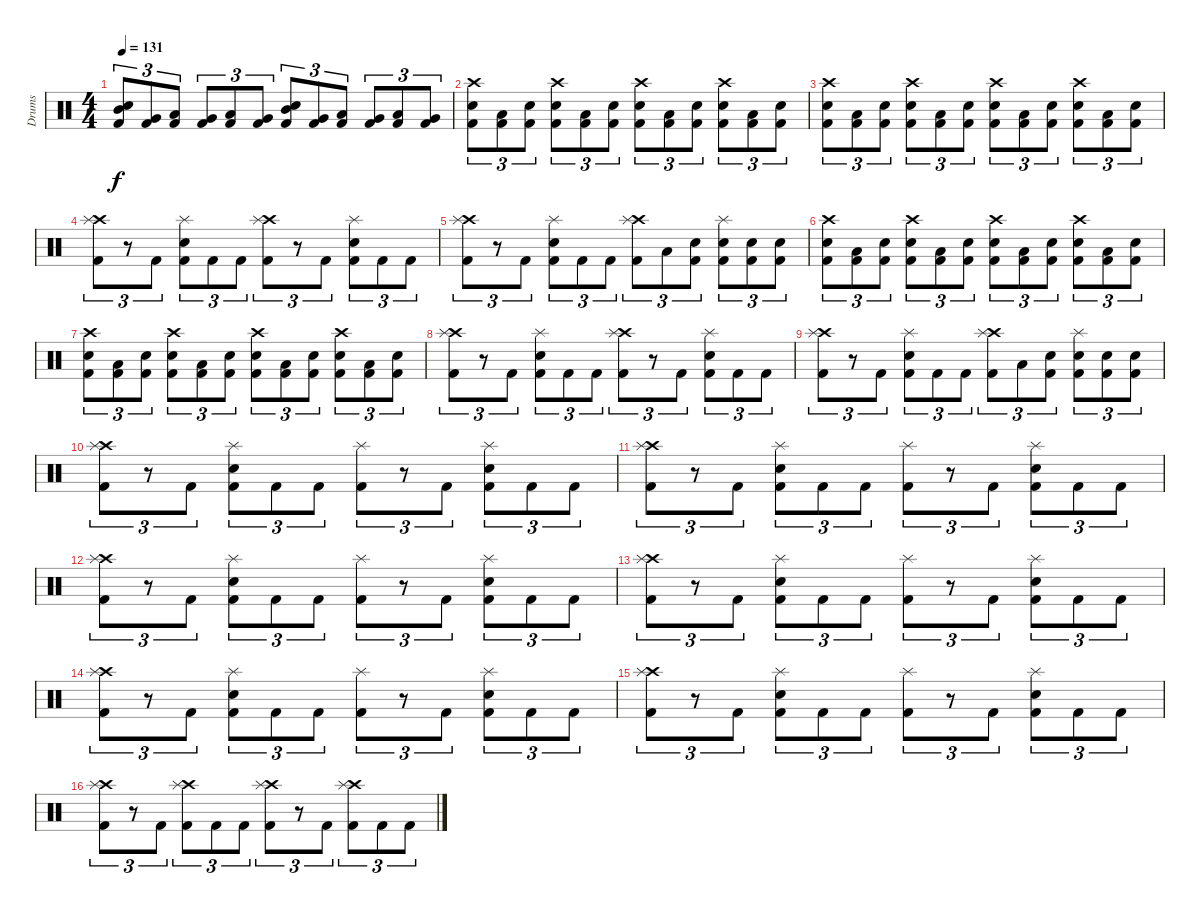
\track ("Drums" "Drums") {instrument percussion}
\staff {score}
\articulation defaults
\ts (4 4)
\tempo 131
\clef neutral
\ks c
("Kick (hit) 2" "Mid Tom (hit)" "Electric Snare (hit)").8{tu (3 2) dy f} ("Kick (hit) 2" "Very Low Tom (hit)").8{tu (3 2)} ("Kick (hit) 2" "Low Tom (hit)").8{tu (3 2)} ("Kick (hit) 2" "Very Low Tom (hit)").8{tu (3 2)} ("Kick (hit) 2" "Low Tom (hit)").8{tu (3 2)} ("Kick (hit) 2" "Very Low Tom (hit)").8{tu (3 2)} ("Kick (hit) 2" "Mid Tom (hit)" "Electric Snare (hit)").8{tu (3 2)} ("Kick (hit) 2" "Very Low Tom (hit)").8{tu (3 2)} ("Kick (hit) 2" "Low Tom (hit)").8{tu (3 2)} ("Kick (hit) 2" "Very Low Tom (hit)").8{tu (3 2)} ("Kick (hit) 2" "Low Tom (hit)").8{tu (3 2)} ("Kick (hit) 2" "Very Low Tom (hit)").8{tu (3 2)} |
("Kick (hit) 2" "Electric Snare (hit)" "Crash high (hit)").8{tu (3 2)} ("Kick (hit) 2" "Low Floor Tom (hit)").8{tu (3 2)} ("Kick (hit) 2" "Electric Snare (hit)").8{tu (3 2)} ("Kick (hit) 2" "Electric Snare (hit)" "Crash high (hit)").8{tu (3 2)} ("Kick (hit) 2" "Low Floor Tom (hit)").8{tu (3 2)} ("Kick (hit) 2" "Electric Snare (hit)").8{tu (3 2)} ("Kick (hit) 2" "Electric Snare (hit)" "Crash high (hit)").8{tu (3 2)} ("Kick (hit) 2" "Low Floor Tom (hit)").8{tu (3 2)} ("Kick (hit) 2" "Electric Snare (hit)").8{tu (3 2)} ("Kick (hit) 2" "Electric Snare (hit)" "Crash high (hit)").8{tu (3 2)} ("Kick (hit) 2" "Low Floor Tom (hit)").8{tu (3 2)} ("Kick (hit) 2" "Electric Snare (hit)").8{tu (3 2)} |
("Kick (hit) 2" "Electric Snare (hit)" "Crash high (hit)").8{tu (3 2)} ("Kick (hit) 2" "Low Floor Tom (hit)").8{tu (3 2)} ("Kick (hit) 2" "Electric Snare (hit)").8{tu (3 2)} ("Kick (hit) 2" "Electric Snare (hit)" "Crash high (hit)").8{tu (3 2)} ("Kick (hit) 2" "Low Floor Tom (hit)").8{tu (3 2)} ("Kick (hit) 2" "Electric Snare (hit)").8{tu (3 2)} ("Kick (hit) 2" "Electric Snare (hit)" "Crash high (hit)").8{tu (3 2)} ("Kick (hit) 2" "Low Floor Tom (hit)").8{tu (3 2)} ("Kick (hit) 2" "Electric Snare (hit)").8{tu (3 2)} ("Kick (hit) 2" "Electric Snare (hit)" "Crash high (hit)").8{tu (3 2)} ("Kick (hit) 2" "Low Floor Tom (hit)").8{tu (3 2)} ("Kick (hit) 2" "Electric Snare (hit)").8{tu (3 2)} |
("Kick (hit) 2" "Crash high (hit)" "Splash (hit)").8{tu (3 2)} r.8{tu (3 2)} "Kick (hit) 2".8{tu (3 2)} ("Kick (hit) 2" "Electric Snare (hit)" "Splash (hit)").8{tu (3 2)} "Kick (hit) 2".8{tu (3 2)} "Kick (hit) 2".8{tu (3 2)} ("Kick (hit) 2" "Crash high (hit)" "Splash (hit)").8{tu (3 2)} r.8{tu (3 2)} "Kick (hit) 2".8{tu (3 2)} ("Kick (hit) 2" "Electric Snare (hit)" "Splash (hit)").8{tu (3 2)} "Kick (hit) 2".8{tu (3 2)} "Kick (hit) 2".8{tu (3 2)} |
("Kick (hit) 2" "Crash high (hit)" "Splash (hit)").8{tu (3 2)} r.8{tu (3 2)} "Kick (hit) 2".8{tu (3 2)} ("Kick (hit) 2" "Electric Snare (hit)" "Splash (hit)").8{tu (3 2)} "Kick (hit) 2".8{tu (3 2)} "Kick (hit) 2".8{tu (3 2)} ("Kick (hit) 2" "Crash high (hit)" "Splash (hit)").8{tu (3 2)} "Low Floor Tom (hit)".8{tu (3 2)} ("Kick (hit) 2" "Electric Snare (hit)").8{tu (3 2)} ("Kick (hit) 2" "Electric Snare (hit)" "Splash (hit)").8{tu (3 2)} ("Kick (hit) 2" "Electric Snare (hit)").8{tu (3 2)} ("Kick (hit) 2" "Electric Snare (hit)").8{tu (3 2)} |
("Kick (hit) 2" "Electric Snare (hit)" "Crash high (hit)").8{tu (3 2)} ("Kick (hit) 2" "Low Floor Tom (hit)").8{tu (3 2)} ("Kick (hit) 2" "Electric Snare (hit)").8{tu (3 2)} ("Kick (hit) 2" "Electric Snare (hit)" "Crash high (hit)").8{tu (3 2)} ("Kick (hit) 2" "Low Floor Tom (hit)").8{tu (3 2)} ("Kick (hit) 2" "Electric Snare (hit)").8{tu (3 2)} ("Kick (hit) 2" "Electric Snare (hit)" "Crash high (hit)").8{tu (3 2)} ("Kick (hit) 2" "Low Floor Tom (hit)").8{tu (3 2)} ("Kick (hit) 2" "Electric Snare (hit)").8{tu (3 2)} ("Kick (hit) 2" "Electric Snare (hit)" "Crash high (hit)").8{tu (3 2)} ("Kick (hit) 2" "Low Floor Tom (hit)").8{tu (3 2)} ("Kick (hit) 2" "Electric Snare (hit)").8{tu (3 2)} |
("Kick (hit) 2" "Electric Snare (hit)" "Crash high (hit)").8{tu (3 2)} ("Kick (hit) 2" "Low Floor Tom (hit)").8{tu (3 2)} ("Kick (hit) 2" "Electric Snare (hit)").8{tu (3 2)} ("Kick (hit) 2" "Electric Snare (hit)" "Crash high (hit)").8{tu (3 2)} ("Kick (hit) 2" "Low Floor Tom (hit)").8{tu (3 2)} ("Kick (hit) 2" "Electric Snare (hit)").8{tu (3 2)} ("Kick (hit) 2" "Electric Snare (hit)" "Crash high (hit)").8{tu (3 2)} ("Kick (hit) 2" "Low Floor Tom (hit)").8{tu (3 2)} ("Kick (hit) 2" "Electric Snare (hit)").8{tu (3 2)} ("Kick (hit) 2" "Electric Snare (hit)" "Crash high (hit)").8{tu (3 2)} ("Kick (hit) 2" "Low Floor Tom (hit)").8{tu (3 2)} ("Kick (hit) 2" "Electric Snare (hit)").8{tu (3 2)} |
("Kick (hit) 2" "Crash high (hit)" "Splash (hit)").8{tu (3 2)} r.8{tu (3 2)} "Kick (hit) 2".8{tu (3 2)} ("Kick (hit) 2" "Electric Snare (hit)" "Splash (hit)").8{tu (3 2)} "Kick (hit) 2".8{tu (3 2)} "Kick (hit) 2".8{tu (3 2)} ("Kick (hit) 2" "Crash high (hit)" "Splash (hit)").8{tu (3 2)} r.8{tu (3 2)} "Kick (hit) 2".8{tu (3 2)} ("Kick (hit) 2" "Electric Snare (hit)" "Splash (hit)").8{tu (3 2)} "Kick (hit) 2".8{tu (3 2)} "Kick (hit) 2".8{tu (3 2)} |
("Kick (hit) 2" "Crash high (hit)" "Splash (hit)").8{tu (3 2)} r.8{tu (3 2)} "Kick (hit) 2".8{tu (3 2)} ("Kick (hit) 2" "Electric Snare (hit)" "Splash (hit)").8{tu (3 2)} "Kick (hit) 2".8{tu (3 2)} "Kick (hit) 2".8{tu (3 2)} ("Kick (hit) 2" "Crash high (hit)" "Splash (hit)").8{tu (3 2)} "Low Floor Tom (hit)".8{tu (3 2)} ("Kick (hit) 2" "Electric Snare (hit)").8{tu (3 2)} ("Kick (hit) 2" "Electric Snare (hit)" "Splash (hit)").8{tu (3 2)} ("Kick (hit) 2" "Electric Snare (hit)").8{tu (3 2)} ("Kick (hit) 2" "Electric Snare (hit)").8{tu (3 2)} |
("Kick (hit) 2" "Crash high (hit)" "Splash (hit)").8{tu (3 2)} r.8{tu (3 2)} "Kick (hit) 2".8{tu (3 2)} ("Kick (hit) 2" "Electric Snare (hit)" "Splash (hit)").8{tu (3 2)} "Kick (hit) 2".8{tu (3 2)} "Kick (hit) 2".8{tu (3 2)} ("Kick (hit) 2" "Splash (hit)").8{tu (3 2)} r.8{tu (3 2)} "Kick (hit) 2".8{tu (3 2)} ("Kick (hit) 2" "Electric Snare (hit)" "Splash (hit)").8{tu (3 2)} "Kick (hit) 2".8{tu (3 2)} "Kick (hit) 2".8{tu (3 2)} |
("Kick (hit) 2" "Crash high (hit)" "Splash (hit)").8{tu (3 2)} r.8{tu (3 2)} "Kick (hit) 2".8{tu (3 2)} ("Kick (hit) 2" "Electric Snare (hit)" "Splash (hit)").8{tu (3 2)} "Kick (hit) 2".8{tu (3 2)} "Kick (hit) 2".8{tu (3 2)} ("Kick (hit) 2" "Splash (hit)").8{tu (3 2)} r.8{tu (3 2)} "Kick (hit) 2".8{tu (3 2)} ("Kick (hit) 2" "Electric Snare (hit)" "Splash (hit)").8{tu (3 2)} "Kick (hit) 2".8{tu (3 2)} "Kick (hit) 2".8{tu (3 2)} |
("Kick (hit) 2" "Crash high (hit)" "Splash (hit)").8{tu (3 2)} r.8{tu (3 2)} "Kick (hit) 2".8{tu (3 2)} ("Kick (hit) 2" "Electric Snare (hit)" "Splash (hit)").8{tu (3 2)} "Kick (hit) 2".8{tu (3 2)} "Kick (hit) 2".8{tu (3 2)} ("Kick (hit) 2" "Splash (hit)").8{tu (3 2)} r.8{tu (3 2)} "Kick (hit) 2".8{tu (3 2)} ("Kick (hit) 2" "Electric Snare (hit)" "Splash (hit)").8{tu (3 2)} "Kick (hit) 2".8{tu (3 2)} "Kick (hit) 2".8{tu (3 2)} |
("Kick (hit) 2" "Crash high (hit)" "Splash (hit)").8{tu (3 2)} r.8{tu (3 2)} "Kick (hit) 2".8{tu (3 2)} ("Kick (hit) 2" "Electric Snare (hit)" "Splash (hit)").8{tu (3 2)} "Kick (hit) 2".8{tu (3 2)} "Kick (hit) 2".8{tu (3 2)} ("Kick (hit) 2" "Splash (hit)").8{tu (3 2)} r.8{tu (3 2)} "Kick (hit) 2".8{tu (3 2)} ("Kick (hit) 2" "Electric Snare (hit)" "Splash (hit)").8{tu (3 2)} "Kick (hit) 2".8{tu (3 2)} "Kick (hit) 2".8{tu (3 2)} |
("Kick (hit) 2" "Crash high (hit)" "Splash (hit)").8{tu (3 2)} r.8{tu (3 2)} "Kick (hit) 2".8{tu (3 2)} ("Kick (hit) 2" "Electric Snare (hit)" "Splash (hit)").8{tu (3 2)} "Kick (hit) 2".8{tu (3 2)} "Kick (hit) 2".8{tu (3 2)} ("Kick (hit) 2" "Splash (hit)").8{tu (3 2)} r.8{tu (3 2)} "Kick (hit) 2".8{tu (3 2)} ("Kick (hit) 2" "Electric Snare (hit)" "Splash (hit)").8{tu (3 2)} "Kick (hit) 2".8{tu (3 2)} "Kick (hit) 2".8{tu (3 2)} |
("Kick (hit) 2" "Crash high (hit)" "Splash (hit)").8{tu (3 2)} r.8{tu (3 2)} "Kick (hit) 2".8{tu (3 2)} ("Kick (hit) 2" "Electric Snare (hit)" "Splash (hit)").8{tu (3 2)} "Kick (hit) 2".8{tu (3 2)} "Kick (hit) 2".8{tu (3 2)} ("Kick (hit) 2" "Splash (hit)").8{tu (3 2)} r.8{tu (3 2)} "Kick (hit) 2".8{tu (3 2)} ("Kick (hit) 2" "Electric Snare (hit)" "Splash (hit)").8{tu (3 2)} "Kick (hit) 2".8{tu (3 2)} "Kick (hit) 2".8{tu (3 2)} |
("Kick (hit) 2" "Crash high (hit)" "Splash (hit)").8{tu (3 2)} r.8{tu (3 2)} "Kick (hit) 2".8{tu (3 2)} ("Kick (hit) 2" "Crash high (hit)" "Splash (hit)").8{tu (3 2)} "Kick (hit) 2".8{tu (3 2)} "Kick (hit) 2".8{tu (3 2)} ("Kick (hit) 2" "Crash high (hit)" "Splash (hit)").8{tu (3 2)} r.8{tu (3 2)} "Kick (hit) 2".8{tu (3 2)} ("Kick (hit) 2" "Crash high (hit)" "Splash (hit)").8{tu (3 2)} "Kick (hit) 2".8{tu (3 2)} "Kick (hit) 2".8{tu (3 2)}
